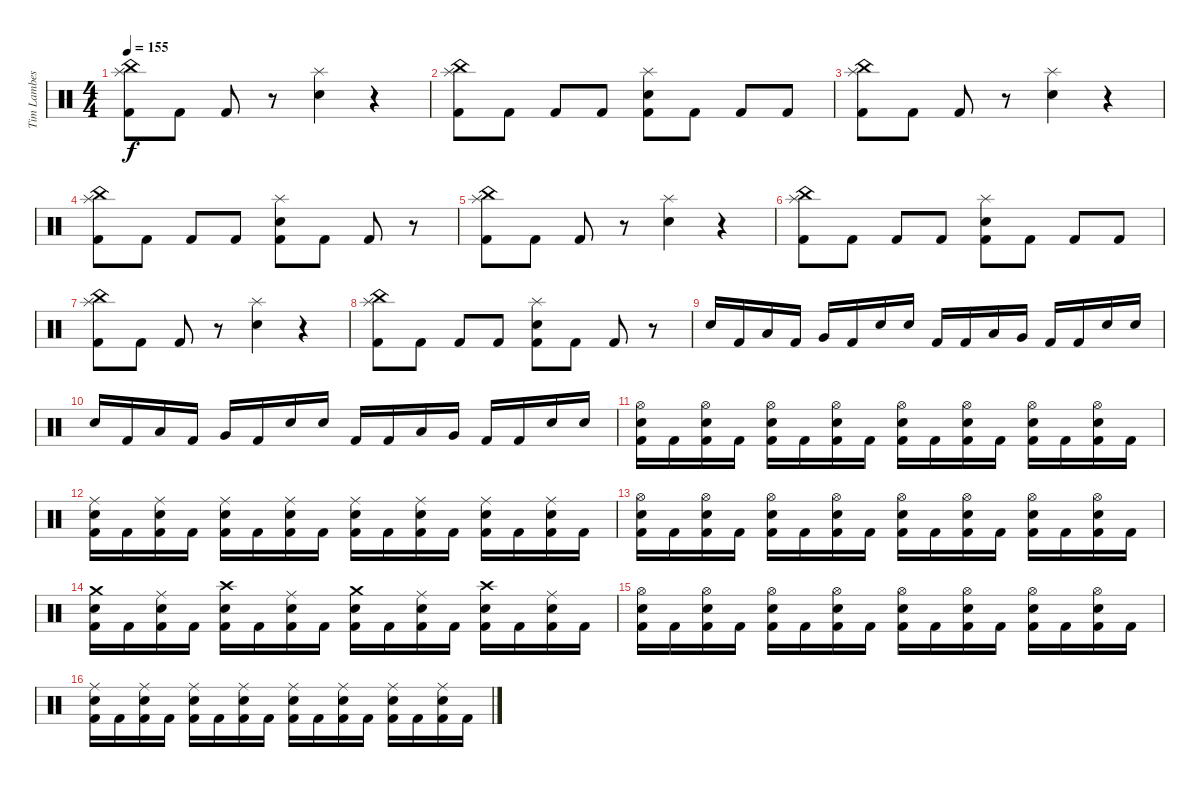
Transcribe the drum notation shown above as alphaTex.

\track ("Tim Lambesis" "Tim Lambes") {instrument percussion}
\staff {score}
\articulation defaults
\ts (4 4)
\tempo 155
\clef neutral
\ks c
("China (hit)" "Splash (hit)" "Kick (hit) 2").8{dy f} "Kick (hit) 2".8 "Kick (hit) 2".8 r.8 ("Splash (hit)" "Electric Snare (hit)").4 r.4 |
("China (hit)" "Splash (hit)" "Kick (hit) 2").8 "Kick (hit) 2".8 "Kick (hit) 2".8 "Kick (hit) 2".8 ("Splash (hit)" "Electric Snare (hit)" "Kick (hit) 2").8 "Kick (hit) 2".8 "Kick (hit) 2".8 "Kick (hit) 2".8 |
("China (hit)" "Splash (hit)" "Kick (hit) 2").8 "Kick (hit) 2".8 "Kick (hit) 2".8 r.8 ("Splash (hit)" "Electric Snare (hit)").4 r.4 |
("China (hit)" "Splash (hit)" "Kick (hit) 2").8 "Kick (hit) 2".8 "Kick (hit) 2".8 "Kick (hit) 2".8 ("Splash (hit)" "Electric Snare (hit)" "Kick (hit) 2").8 "Kick (hit) 2".8 "Kick (hit) 2".8 r.8 |
("China (hit)" "Splash (hit)" "Kick (hit) 2").8 "Kick (hit) 2".8 "Kick (hit) 2".8 r.8 ("Splash (hit)" "Electric Snare (hit)").4 r.4 |
("China (hit)" "Splash (hit)" "Kick (hit) 2").8 "Kick (hit) 2".8 "Kick (hit) 2".8 "Kick (hit) 2".8 ("Splash (hit)" "Electric Snare (hit)" "Kick (hit) 2").8 "Kick (hit) 2".8 "Kick (hit) 2".8 "Kick (hit) 2".8 |
("China (hit)" "Splash (hit)" "Kick (hit) 2").8 "Kick (hit) 2".8 "Kick (hit) 2".8 r.8 ("Splash (hit)" "Electric Snare (hit)").4 r.4 |
("China (hit)" "Splash (hit)" "Kick (hit) 2").8 "Kick (hit) 2".8 "Kick (hit) 2".8 "Kick (hit) 2".8 ("Splash (hit)" "Electric Snare (hit)" "Kick (hit) 2").8 "Kick (hit) 2".8 "Kick (hit) 2".8 r.8 |
"Electric Snare (hit)".16 "Kick (hit) 2".16 "Low Tom (hit)".16 "Kick (hit) 2".16 "Very Low Tom (hit)".16 "Kick (hit) 2".16 "Electric Snare (hit)".16 "Electric Snare (hit)".16 "Kick (hit) 2".16 "Kick (hit) 2".16 "Low Tom (hit)".16 "Very Low Tom (hit)".16 "Kick (hit) 2".16 "Kick (hit) 2".16 "Electric Snare (hit)".16 "Electric Snare (hit)".16 |
"Electric Snare (hit)".16 "Kick (hit) 2".16 "Low Tom (hit)".16 "Kick (hit) 2".16 "Very Low Tom (hit)".16 "Kick (hit) 2".16 "Electric Snare (hit)".16 "Electric Snare (hit)".16 "Kick (hit) 2".16 "Kick (hit) 2".16 "Low Tom (hit)".16 "Very Low Tom (hit)".16 "Kick (hit) 2".16 "Kick (hit) 2".16 "Electric Snare (hit)".16 "Electric Snare (hit)".16 |
("Hi-Hat (open)" "Electric Snare (hit)" "Kick (hit) 2").16 "Kick (hit) 2".16 ("Hi-Hat (open)" "Electric Snare (hit)" "Kick (hit) 2").16 "Kick (hit) 2".16 ("Hi-Hat (open)" "Electric Snare (hit)" "Kick (hit) 2").16 "Kick (hit) 2".16 ("Hi-Hat (open)" "Electric Snare (hit)" "Kick (hit) 2").16 "Kick (hit) 2".16 ("Hi-Hat (open)" "Electric Snare (hit)" "Kick (hit) 2").16 "Kick (hit) 2".16 ("Hi-Hat (open)" "Electric Snare (hit)" "Kick (hit) 2").16 "Kick (hit) 2".16 ("Hi-Hat (open)" "Electric Snare (hit)" "Kick (hit) 2").16 "Kick (hit) 2".16 ("Hi-Hat (open)" "Electric Snare (hit)" "Kick (hit) 2").16 "Kick (hit) 2".16 |
("Ride (middle)" "Electric Snare (hit)" "Kick (hit) 2").16 "Kick (hit) 2".16 ("Ride (middle)" "Electric Snare (hit)" "Kick (hit) 2").16 "Kick (hit) 2".16 ("Ride (middle)" "Electric Snare (hit)" "Kick (hit) 2").16 "Kick (hit) 2".16 ("Ride (middle)" "Electric Snare (hit)" "Kick (hit) 2").16 "Kick (hit) 2".16 ("Ride (middle)" "Electric Snare (hit)" "Kick (hit) 2").16 "Kick (hit) 2".16 ("Ride (middle)" "Electric Snare (hit)" "Kick (hit) 2").16 "Kick (hit) 2".16 ("Ride (middle)" "Electric Snare (hit)" "Kick (hit) 2").16 "Kick (hit) 2".16 ("Ride (middle)" "Electric Snare (hit)" "Kick (hit) 2").16 "Kick (hit) 2".16 |
("Hi-Hat (open)" "Electric Snare (hit)" "Kick (hit) 2").16 "Kick (hit) 2".16 ("Hi-Hat (open)" "Electric Snare (hit)" "Kick (hit) 2").16 "Kick (hit) 2".16 ("Hi-Hat (open)" "Electric Snare (hit)" "Kick (hit) 2").16 "Kick (hit) 2".16 ("Hi-Hat (open)" "Electric Snare (hit)" "Kick (hit) 2").16 "Kick (hit) 2".16 ("Hi-Hat (open)" "Electric Snare (hit)" "Kick (hit) 2").16 "Kick (hit) 2".16 ("Hi-Hat (open)" "Electric Snare (hit)" "Kick (hit) 2").16 "Kick (hit) 2".16 ("Hi-Hat (open)" "Electric Snare (hit)" "Kick (hit) 2").16 "Kick (hit) 2".16 ("Hi-Hat (open)" "Electric Snare (hit)" "Kick (hit) 2").16 "Kick (hit) 2".16 |
("Crash medium (hit)" "Electric Snare (hit)" "Kick (hit) 2").16 "Kick (hit) 2".16 ("Ride (middle)" "Electric Snare (hit)" "Kick (hit) 2").16 "Kick (hit) 2".16 ("Crash high (hit)" "Electric Snare (hit)" "Kick (hit) 2").16 "Kick (hit) 2".16 ("Ride (middle)" "Electric Snare (hit)" "Kick (hit) 2").16 "Kick (hit) 2".16 ("Crash medium (hit)" "Electric Snare (hit)" "Kick (hit) 2").16 "Kick (hit) 2".16 ("Ride (middle)" "Electric Snare (hit)" "Kick (hit) 2").16 "Kick (hit) 2".16 ("Crash high (hit)" "Electric Snare (hit)" "Kick (hit) 2").16 "Kick (hit) 2".16 ("Ride (middle)" "Electric Snare (hit)" "Kick (hit) 2").16 "Kick (hit) 2".16 |
("Hi-Hat (open)" "Electric Snare (hit)" "Kick (hit) 2").16 "Kick (hit) 2".16 ("Hi-Hat (open)" "Electric Snare (hit)" "Kick (hit) 2").16 "Kick (hit) 2".16 ("Hi-Hat (open)" "Electric Snare (hit)" "Kick (hit) 2").16 "Kick (hit) 2".16 ("Hi-Hat (open)" "Electric Snare (hit)" "Kick (hit) 2").16 "Kick (hit) 2".16 ("Hi-Hat (open)" "Electric Snare (hit)" "Kick (hit) 2").16 "Kick (hit) 2".16 ("Hi-Hat (open)" "Electric Snare (hit)" "Kick (hit) 2").16 "Kick (hit) 2".16 ("Hi-Hat (open)" "Electric Snare (hit)" "Kick (hit) 2").16 "Kick (hit) 2".16 ("Hi-Hat (open)" "Electric Snare (hit)" "Kick (hit) 2").16 "Kick (hit) 2".16 |
("Ride (middle)" "Electric Snare (hit)" "Kick (hit) 2").16 "Kick (hit) 2".16 ("Ride (middle)" "Electric Snare (hit)" "Kick (hit) 2").16 "Kick (hit) 2".16 ("Ride (middle)" "Electric Snare (hit)" "Kick (hit) 2").16 "Kick (hit) 2".16 ("Ride (middle)" "Electric Snare (hit)" "Kick (hit) 2").16 "Kick (hit) 2".16 ("Ride (middle)" "Electric Snare (hit)" "Kick (hit) 2").16 "Kick (hit) 2".16 ("Ride (middle)" "Electric Snare (hit)" "Kick (hit) 2").16 "Kick (hit) 2".16 ("Ride (middle)" "Electric Snare (hit)" "Kick (hit) 2").16 "Kick (hit) 2".16 ("Ride (middle)" "Electric Snare (hit)" "Kick (hit) 2").16 "Kick (hit) 2".16
